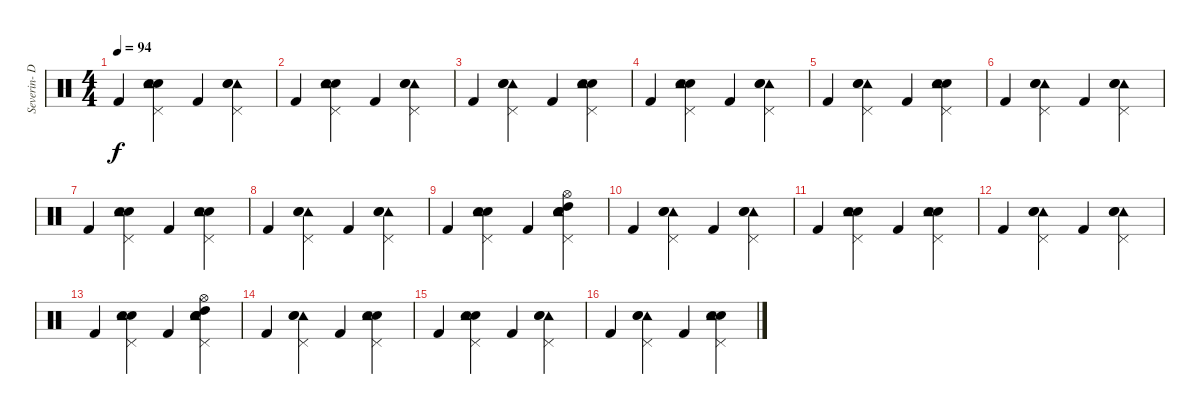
\track ("Severin- Drums" "Severin- D") {instrument percussion}
\staff {score}
\articulation defaults
\ts (4 4)
\tempo 94
\clef neutral
\ks c "Kick (hit) 2".4{dy f}
("Snare (hit) 2" "Electric Snare (hit)" "Pedal Hi-Hat (hit)" "Tambourine (hit)").4 "Kick (hit) 2".4 ("Tambourine (hit)" "Electric Snare (hit)" "Snare (hit) 2" "Pedal Hi-Hat (hit)").4 |
"Kick (hit) 2".4 ("Snare (hit) 2" "Electric Snare (hit)" "Pedal Hi-Hat (hit)" "Tambourine (hit)").4 "Kick (hit) 2".4 ("Tambourine (hit)" "Pedal Hi-Hat (hit)" "Electric Snare (hit)" "Snare (hit) 2").4 |
"Kick (hit) 2".4 ("Tambourine (hit)" "Pedal Hi-Hat (hit)" "Electric Snare (hit)" "Snare (hit) 2").4 "Kick (hit) 2".4 ("Pedal Hi-Hat (hit)" "Snare (hit) 2" "Electric Snare (hit)" "Tambourine (hit)").4 |
"Kick (hit) 2".4 ("Snare (hit) 2" "Electric Snare (hit)" "Pedal Hi-Hat (hit)" "Tambourine (hit)").4 "Kick (hit) 2".4 ("Tambourine (hit)" "Pedal Hi-Hat (hit)" "Electric Snare (hit)" "Snare (hit) 2").4 |
"Kick (hit) 2".4 ("Tambourine (hit)" "Pedal Hi-Hat (hit)" "Electric Snare (hit)" "Snare (hit) 2").4 "Kick (hit) 2".4 ("Pedal Hi-Hat (hit)" "Snare (hit) 2" "Electric Snare (hit)" "Tambourine (hit)").4 |
"Kick (hit) 2".4 ("Tambourine (hit)" "Pedal Hi-Hat (hit)" "Electric Snare (hit)" "Snare (hit) 2").4 "Kick (hit) 2".4 ("Tambourine (hit)" "Pedal Hi-Hat (hit)" "Electric Snare (hit)" "Snare (hit) 2").4 |
"Kick (hit) 2".4 ("Snare (hit) 2" "Electric Snare (hit)" "Pedal Hi-Hat (hit)" "Tambourine (hit)").4 "Kick (hit) 2".4 ("Pedal Hi-Hat (hit)" "Snare (hit) 2" "Electric Snare (hit)" "Tambourine (hit)").4 |
"Kick (hit) 2".4 ("Tambourine (hit)" "Pedal Hi-Hat (hit)" "Electric Snare (hit)" "Snare (hit) 2").4 "Kick (hit) 2".4 ("Tambourine (hit)" "Pedal Hi-Hat (hit)" "Electric Snare (hit)" "Snare (hit) 2").4 |
"Kick (hit) 2".4 ("Snare (hit) 2" "Electric Snare (hit)" "Pedal Hi-Hat (hit)" "Tambourine (hit)").4 "Kick (hit) 2".4 ("High Tom (hit)" "Hi-Hat (open)" "Pedal Hi-Hat (hit)" "Snare (hit) 2" "Electric Snare (hit)" "Tambourine (hit)").4 |
"Kick (hit) 2".4 ("Tambourine (hit)" "Pedal Hi-Hat (hit)" "Electric Snare (hit)" "Snare (hit) 2").4 "Kick (hit) 2".4 ("Tambourine (hit)" "Pedal Hi-Hat (hit)" "Electric Snare (hit)" "Snare (hit) 2").4 |
"Kick (hit) 2".4 ("Snare (hit) 2" "Electric Snare (hit)" "Pedal Hi-Hat (hit)" "Tambourine (hit)").4 "Kick (hit) 2".4 ("Pedal Hi-Hat (hit)" "Snare (hit) 2" "Electric Snare (hit)" "Tambourine (hit)").4 |
"Kick (hit) 2".4 ("Tambourine (hit)" "Pedal Hi-Hat (hit)" "Electric Snare (hit)" "Snare (hit) 2").4 "Kick (hit) 2".4 ("Tambourine (hit)" "Pedal Hi-Hat (hit)" "Electric Snare (hit)" "Snare (hit) 2").4 |
"Kick (hit) 2".4 ("Snare (hit) 2" "Electric Snare (hit)" "Pedal Hi-Hat (hit)" "Tambourine (hit)").4 "Kick (hit) 2".4 ("High Tom (hit)" "Hi-Hat (open)" "Pedal Hi-Hat (hit)" "Snare (hit) 2" "Electric Snare (hit)" "Tambourine (hit)").4 |
"Kick (hit) 2".4 ("Tambourine (hit)" "Pedal Hi-Hat (hit)" "Electric Snare (hit)" "Snare (hit) 2").4 "Kick (hit) 2".4 ("Snare (hit) 2" "Electric Snare (hit)" "Pedal Hi-Hat (hit)" "Tambourine (hit)").4 |
"Kick (hit) 2".4 ("Snare (hit) 2" "Electric Snare (hit)" "Pedal Hi-Hat (hit)" "Tambourine (hit)").4 "Kick (hit) 2".4 ("Tambourine (hit)" "Electric Snare (hit)" "Snare (hit) 2" "Pedal Hi-Hat (hit)").4 |
"Kick (hit) 2".4 ("Tambourine (hit)" "Pedal Hi-Hat (hit)" "Electric Snare (hit)" "Snare (hit) 2").4 "Kick (hit) 2".4 ("Snare (hit) 2" "Electric Snare (hit)" "Pedal Hi-Hat (hit)" "Tambourine (hit)").4
